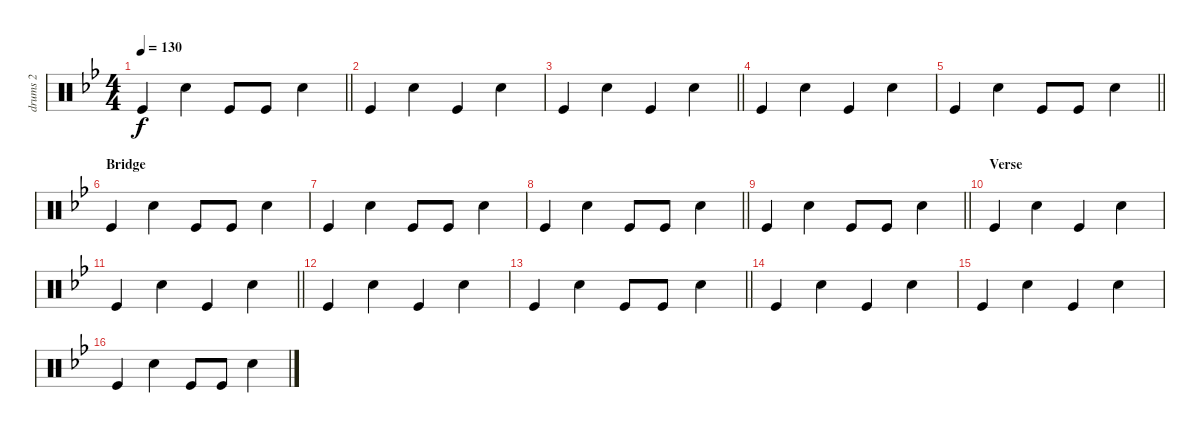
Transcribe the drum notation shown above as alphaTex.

\track ("drums 2" "drums 2") {instrument percussion}
\staff {score}
\articulation defaults
\ts (4 4)
\tempo 130
\clef neutral
\barLineRight lightlight
\ks bb "Kick (hit)".4{dy f} "Snare (hit) 2".4 "Kick (hit)".8 "Kick (hit)".8 "Snare (hit) 2".4
|
"Kick (hit)".4 "Snare (hit) 2".4 "Kick (hit)".4 "Snare (hit) 2".4 |
\barLineRight lightlight "Kick (hit)".4 "Snare (hit) 2".4 "Kick (hit)".4 "Snare (hit) 2".4
|
"Kick (hit)".4 "Snare (hit) 2".4 "Kick (hit)".4 "Snare (hit) 2".4 |
\barLineRight lightlight "Kick (hit)".4 "Snare (hit) 2".4 "Kick (hit)".8 "Kick (hit)".8 "Snare (hit) 2".4
|
\section ("" "Bridge")
"Kick (hit)".4 "Snare (hit) 2".4 "Kick (hit)".8 "Kick (hit)".8 "Snare (hit) 2".4 |
"Kick (hit)".4 "Snare (hit) 2".4 "Kick (hit)".8 "Kick (hit)".8 "Snare (hit) 2".4 |
\barLineRight lightlight "Kick (hit)".4 "Snare (hit) 2".4 "Kick (hit)".8 "Kick (hit)".8 "Snare (hit) 2".4
|
\barLineRight lightlight "Kick (hit)".4 "Snare (hit) 2".4 "Kick (hit)".8 "Kick (hit)".8 "Snare (hit) 2".4
|
\section ("" "Verse")
"Kick (hit)".4 "Snare (hit) 2".4 "Kick (hit)".4 "Snare (hit) 2".4 |
\barLineRight lightlight "Kick (hit)".4 "Snare (hit) 2".4 "Kick (hit)".4 "Snare (hit) 2".4
|
"Kick (hit)".4 "Snare (hit) 2".4 "Kick (hit)".4 "Snare (hit) 2".4 |
\barLineRight lightlight "Kick (hit)".4 "Snare (hit) 2".4 "Kick (hit)".8 "Kick (hit)".8 "Snare (hit) 2".4
|
"Kick (hit)".4 "Snare (hit) 2".4 "Kick (hit)".4 "Snare (hit) 2".4 |
"Kick (hit)".4 "Snare (hit) 2".4 "Kick (hit)".4 "Snare (hit) 2".4 |
"Kick (hit)".4 "Snare (hit) 2".4 "Kick (hit)".8 "Kick (hit)".8 "Snare (hit) 2".4
